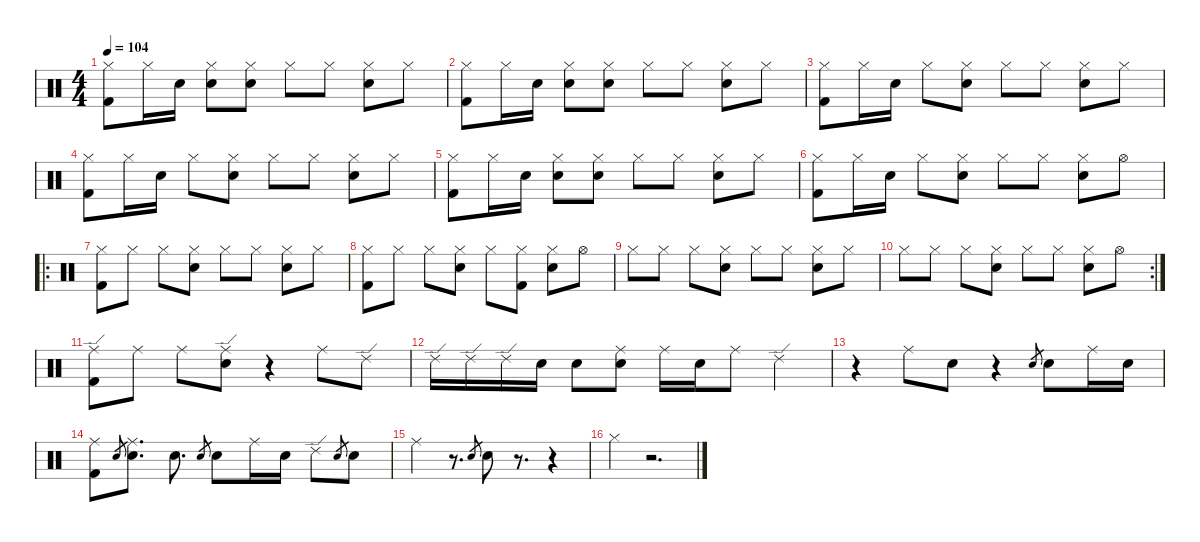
\defaultSystemsLayout 4
\hideDynamics
\bracketExtendMode nobrackets
\singleTrackTrackNamePolicy hidden
\multiTrackTrackNamePolicy hidden
\firstSystemTrackNameMode fullname
\firstSystemTrackNameOrientation horizontal
\otherSystemsTrackNameOrientation horizontal
\track ("Drums" "drm.") {instrument percussion}
\staff {score}
\articulation defaults
\ts (4 4)
\tempo 104
\clef neutral
\ks c
("Hi-Hat (closed)" "Kick (hit) 2").8{dy f beam Down} "Hi-Hat (closed)".16{beam Down} "Snare (hit) 2".16{dy mp beam Down} ("Hi-Hat (closed)" "Snare (hit) 2").8{dy f beam Down} ("Hi-Hat (closed)" "Snare (hit) 2").8{beam Down} "Hi-Hat (closed)".8{beam Down} "Hi-Hat (closed)".8{beam Down} ("Hi-Hat (closed)" "Snare (hit) 2").8{beam Down} "Hi-Hat (closed)".8{beam Down} |
("Hi-Hat (closed)" "Kick (hit) 2").8{beam Down} "Hi-Hat (closed)".16{beam Down} "Snare (hit) 2".16{dy mp beam Down} ("Hi-Hat (closed)" "Snare (hit) 2").8{dy f beam Down} ("Hi-Hat (closed)" "Snare (hit) 2").8{beam Down} "Hi-Hat (closed)".8{beam Down} "Hi-Hat (closed)".8{beam Down} ("Hi-Hat (closed)" "Snare (hit) 2").8{beam Down} "Hi-Hat (closed)".8{beam Down} |
("Hi-Hat (closed)" "Kick (hit) 2").8{beam Down} "Hi-Hat (closed)".16{beam Down} "Snare (hit) 2".16{dy mp beam Down} "Hi-Hat (closed)".8{dy f beam Down} ("Hi-Hat (closed)" "Snare (hit) 2").8{beam Down} "Hi-Hat (closed)".8{beam Down} "Hi-Hat (closed)".8{beam Down} ("Hi-Hat (closed)" "Snare (hit) 2").8{beam Down} "Hi-Hat (closed)".8{beam Down} |
("Hi-Hat (closed)" "Kick (hit) 2").8{beam Down} "Hi-Hat (closed)".16{beam Down} "Snare (hit) 2".16{dy mp beam Down} "Hi-Hat (closed)".8{dy f beam Down} ("Hi-Hat (closed)" "Snare (hit) 2").8{beam Down} "Hi-Hat (closed)".8{beam Down} "Hi-Hat (closed)".8{beam Down} ("Hi-Hat (closed)" "Snare (hit) 2").8{beam Down} "Hi-Hat (closed)".8{beam Down} |
("Hi-Hat (closed)" "Kick (hit) 2").8{beam Down} "Hi-Hat (closed)".16{beam Down} "Snare (hit) 2".16{dy mp beam Down} ("Hi-Hat (closed)" "Snare (hit) 2").8{dy f beam Down} ("Hi-Hat (closed)" "Snare (hit) 2").8{beam Down} "Hi-Hat (closed)".8{beam Down} "Hi-Hat (closed)".8{beam Down} ("Hi-Hat (closed)" "Snare (hit) 2").8{beam Down} "Hi-Hat (closed)".8{beam Down} |
("Hi-Hat (closed)" "Kick (hit) 2").8{dy mf beam Down} "Hi-Hat (closed)".16{beam Down} "Snare (hit) 2".16{dy mp beam Down} "Hi-Hat (closed)".8{dy f beam Down} ("Hi-Hat (closed)" "Snare (hit) 2").8{dy mf beam Down} "Hi-Hat (closed)".8{beam Down} "Hi-Hat (closed)".8{beam Down} ("Hi-Hat (closed)" "Snare (hit) 2").8{beam Down} "Hi-Hat (open)".8{dy f beam Down} |
\ro
("Hi-Hat (closed)" "Kick (hit) 2").8{beam Down} "Hi-Hat (closed)".8{beam Down} "Hi-Hat (closed)".8{beam Down} ("Hi-Hat (closed)" "Snare (hit) 2").8{beam Down} "Hi-Hat (closed)".8{beam Down} "Hi-Hat (closed)".8{beam Down} ("Hi-Hat (closed)" "Snare (hit) 2").8{beam Down} "Hi-Hat (closed)".8{beam Down} |
("Hi-Hat (closed)" "Kick (hit) 2").8{beam Down} "Hi-Hat (closed)".8{beam Down} "Hi-Hat (closed)".8{beam Down} ("Hi-Hat (closed)" "Snare (hit) 2").8{beam Down} "Hi-Hat (closed)".8{beam Down} ("Hi-Hat (closed)" "Kick (hit) 2").8{beam Down} ("Hi-Hat (closed)" "Snare (hit) 2").8{beam Down} "Hi-Hat (open)".8{beam Down} |
"Hi-Hat (closed)".8{beam Down} "Hi-Hat (closed)".8{beam Down} "Hi-Hat (closed)".8{beam Down} ("Hi-Hat (closed)" "Snare (hit) 2").8{beam Down} "Hi-Hat (closed)".8{beam Down} "Hi-Hat (closed)".8{beam Down} ("Hi-Hat (closed)" "Snare (hit) 2").8{beam Down} "Hi-Hat (closed)".8{beam Down} |
\rc 2 "Hi-Hat (closed)".8{beam Down} "Hi-Hat (closed)".8{beam Down} "Hi-Hat (closed)".8{beam Down}
("Hi-Hat (closed)" "Snare (hit) 2").8{beam Down} "Hi-Hat (closed)".8{beam Down} "Hi-Hat (closed)".8{beam Down} ("Hi-Hat (closed)" "Snare (hit) 2").8{beam Down} "Hi-Hat (open)".8{beam Down} |
("Kick (hit) 2" "Ride (edge)").8{beam Down} "Ride (middle)".8{beam Down} "Ride (middle)".8{beam Down} ("Ride (edge)" "Snare (hit) 2").8{beam Down} r.4{beam Down} "Ride (middle)".8{dy mp beam Down} "Ride (edge) 2".8{dy ppp beam Down} |
"Ride (edge) 2".16{dy pp beam Down} "Ride (edge) 2".16{beam Down} "Ride (edge) 2".16{beam Down} "Snare (hit) 2".16{dy mf beam Down} "Snare (hit) 2".8{dy mp beam Down} ("Ride (middle)" "Snare (hit) 2").8{dy f beam Down} "Ride (middle)".16{beam Down} "Snare (hit) 2".16{dy mp beam Down} "Ride (middle)".8{dy f beam Down} "Ride (edge) 2".4{dy pp beam Down} |
r.4{beam Down} "Ride (middle)".8{dy mp beam Down} "Snare (hit) 2".8{dy f beam Down} r.4{beam Down} "Electric Snare (hit)".8{gr dy mf beam Up} "Snare (hit) 2".8{dy f beam Down} "Ride (middle)".16{dy mf beam Down} "Snare (hit) 2".16{dy mp beam Down} |
("Ride (middle)" "Kick (hit) 2").8{dy mf beam Down} "Electric Snare (hit)".8{gr beam Up} ("Ride (middle)" "Snare (hit) 2").8{d dy f beam Down} "Snare (hit) 2".8{d beam Down} "Electric Snare (hit)".8{gr dy mf beam Up} "Snare (hit) 2".8{dy f beam Down} "Ride (middle)".16{dy mf beam Down} "Snare (hit) 2".16{beam Down} "Ride (edge) 2".8{dy ppp beam Down} "Electric Snare (hit)".8{gr beam Up} "Snare (hit) 2".8{dy f beam Down} |
"Ride (middle)".4{dy mf beam Down} r.8{d beam Down} "Electric Snare (hit)".8{gr beam Up} "Snare (hit) 2".8{dy f beam Down} r.8{d beam Down} r.4{beam Down} |
"Hi-Hat (closed)".4{dy mf beam Down} r.2{d beam Down}
